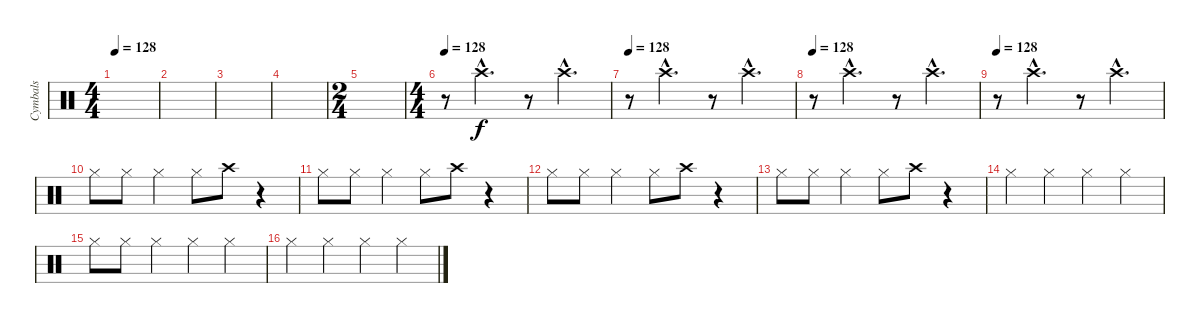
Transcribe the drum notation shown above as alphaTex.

\track ("Cymbals" "Cymbals") {instrument percussion}
\staff {score}
\articulation defaults
\ts (4 4)
\tempo 128
\clef neutral
\ks c
|
|
|
|
\ts (2 4)
|
\ts (4 4)
\tempo 128
r.8 "Crash high (hit)"{hac}.4{d} r.8 "Crash high (hit)"{hac}.4{d} |
\tempo 128
r.8 "Crash high (hit)"{hac}.4{d} r.8 "Crash high (hit)"{hac}.4{d} |
\tempo 128
r.8 "Crash high (hit)"{hac}.4{d} r.8 "Crash high (hit)"{hac}.4{d} |
\tempo 128
r.8 "Crash high (hit)"{hac}.4{d} r.8 "Crash high (hit)"{hac}.4{d} |
"Hi-Hat (closed)".8 "Hi-Hat (closed)".8 "Hi-Hat (closed)".4 "Hi-Hat (closed)".8 "Crash high (hit)".8 r.4 |
"Hi-Hat (closed)".8 "Hi-Hat (closed)".8 "Hi-Hat (closed)".4 "Hi-Hat (closed)".8 "Crash high (hit)".8 r.4 |
"Hi-Hat (closed)".8 "Hi-Hat (closed)".8 "Hi-Hat (closed)".4 "Hi-Hat (closed)".8 "Crash high (hit)".8 r.4 |
"Hi-Hat (closed)".8 "Hi-Hat (closed)".8 "Hi-Hat (closed)".4 "Hi-Hat (closed)".8 "Crash high (hit)".8 r.4 |
"Hi-Hat (closed)".4 "Hi-Hat (closed)".4 "Hi-Hat (closed)".4 "Hi-Hat (closed)".4 |
"Hi-Hat (closed)".8 "Hi-Hat (closed)".8 "Hi-Hat (closed)".4 "Hi-Hat (closed)".4 "Hi-Hat (closed)".4 |
"Hi-Hat (closed)".4 "Hi-Hat (closed)".4 "Hi-Hat (closed)".4 "Hi-Hat (closed)".4
